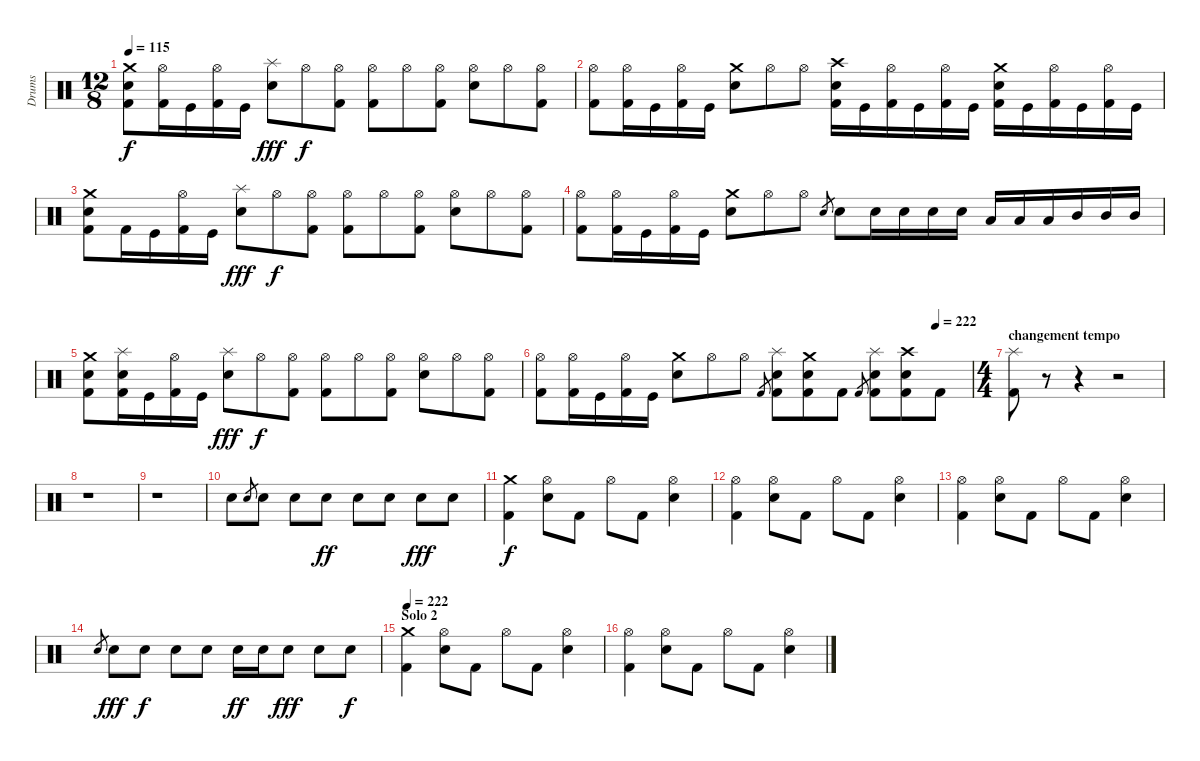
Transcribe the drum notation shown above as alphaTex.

\track ("Drums" "Drums") {instrument percussion}
\staff {score}
\articulation defaults
\ts (12 8)
\tempo 115
\clef neutral
\ks c
("Kick (hit) 2" "Electric Snare (hit)" "Crash medium (hit)").8{dy f} ("Kick (hit) 2" "Hi-Hat (open)").16 "Kick (hit)".16 ("Kick (hit) 2" "Hi-Hat (open)").16 "Kick (hit)".16 ("Electric Snare (hit)" "Splash (hit)").8{dy fff} "Hi-Hat (open)".8{dy f} ("Kick (hit) 2" "Hi-Hat (open)").8 ("Kick (hit) 2" "Hi-Hat (open)").8 "Hi-Hat (open)".8 ("Kick (hit) 2" "Hi-Hat (open)").8 ("Electric Snare (hit)" "Hi-Hat (open)").8 "Hi-Hat (open)".8 ("Kick (hit) 2" "Hi-Hat (open)").8 |
("Kick (hit) 2" "Hi-Hat (open)").8 ("Kick (hit) 2" "Hi-Hat (open)").16 "Kick (hit)".16 ("Kick (hit) 2" "Hi-Hat (open)").16 "Kick (hit)".16 ("Electric Snare (hit)" "Crash medium (hit)").8 "Hi-Hat (open)".8 "Hi-Hat (open)".8 ("Kick (hit) 2" "Electric Snare (hit)" "Crash high (hit)").16 "Kick (hit)".16 ("Kick (hit) 2" "Hi-Hat (open)").16 "Kick (hit)".16 ("Kick (hit) 2" "Hi-Hat (open)").16 "Kick (hit)".16 ("Kick (hit) 2" "Electric Snare (hit)" "Crash medium (hit)").16 "Kick (hit)".16 ("Kick (hit) 2" "Hi-Hat (open)").16 "Kick (hit)".16 ("Kick (hit) 2" "Hi-Hat (open)").16 "Kick (hit)".16 |
("Kick (hit) 2" "Electric Snare (hit)" "Crash medium (hit)").8 "Kick (hit) 2".16 "Kick (hit)".16 ("Kick (hit) 2" "Hi-Hat (open)").16 "Kick (hit)".16 ("Electric Snare (hit)" "Splash (hit)").8{dy fff} "Hi-Hat (open)".8{dy f} ("Kick (hit) 2" "Hi-Hat (open)").8 ("Kick (hit) 2" "Hi-Hat (open)").8 "Hi-Hat (open)".8 ("Kick (hit) 2" "Hi-Hat (open)").8 ("Electric Snare (hit)" "Hi-Hat (open)").8 "Hi-Hat (open)".8 ("Kick (hit) 2" "Hi-Hat (open)").8 |
("Kick (hit) 2" "Hi-Hat (open)").8 ("Kick (hit) 2" "Hi-Hat (open)").16 "Kick (hit)".16 ("Kick (hit) 2" "Hi-Hat (open)").16 "Kick (hit)".16 ("Electric Snare (hit)" "Crash medium (hit)").8 "Hi-Hat (open)".8 "Hi-Hat (open)".8 "Electric Snare (hit)".8{gr} "Electric Snare (hit)".8 "Electric Snare (hit)".16 "Electric Snare (hit)".16 "Electric Snare (hit)".16 "Electric Snare (hit)".16 "Low Tom (hit)".16 "Low Tom (hit)".16 "Low Tom (hit)".16 "Mid Tom (hit)".16 "Mid Tom (hit)".16 "Mid Tom (hit)".16 |
("Kick (hit) 2" "Electric Snare (hit)" "Crash medium (hit)").8 ("Kick (hit) 2" "Electric Snare (hit)" "Splash (hit)").16 "Kick (hit)".16 ("Kick (hit) 2" "Hi-Hat (open)").16 "Kick (hit)".16 ("Electric Snare (hit)" "Splash (hit)").8{dy fff} "Hi-Hat (open)".8{dy f} ("Kick (hit) 2" "Hi-Hat (open)").8 ("Kick (hit) 2" "Hi-Hat (open)").8 "Hi-Hat (open)".8 ("Kick (hit) 2" "Hi-Hat (open)").8 ("Electric Snare (hit)" "Hi-Hat (open)").8 "Hi-Hat (open)".8 ("Kick (hit) 2" "Hi-Hat (open)").8 |
\tempo (222 0.9166666666666666)
("Kick (hit) 2" "Hi-Hat (open)").8 ("Kick (hit) 2" "Hi-Hat (open)").16 "Kick (hit)".16 ("Kick (hit) 2" "Hi-Hat (open)").16 "Kick (hit)".16 ("Electric Snare (hit)" "Crash medium (hit)").8 "Hi-Hat (open)".8 "Hi-Hat (open)".8 "Kick (hit) 2".8{gr} ("Kick (hit) 2" "Electric Snare (hit)" "Splash (hit)").8 ("Kick (hit) 2" "Electric Snare (hit)" "Crash medium (hit)").8 "Kick (hit) 2".8 "Kick (hit) 2".8{gr} ("Kick (hit) 2" "Electric Snare (hit)" "Splash (hit)").8 ("Kick (hit) 2" "Electric Snare (hit)" "Crash high (hit)").8 "Kick (hit) 2".8 |
\ts (4 4)
\section ("" "changement tempo")
("Kick (hit) 2" "Splash (hit)").8 r.8 r.4 r.2 |
r.1 |
r.1 |
"Electric Snare (hit)".8 "Electric Snare (hit)".8{gr} "Electric Snare (hit)".8 "Electric Snare (hit)".8 "Electric Snare (hit)".8{dy ff} "Electric Snare (hit)".8 "Electric Snare (hit)".8 "Electric Snare (hit)".8{dy fff} "Electric Snare (hit)".8 |
("Kick (hit) 2" "Crash medium (hit)").4{dy f} ("Electric Snare (hit)" "Hi-Hat (open)").8 "Kick (hit) 2".8 "Hi-Hat (open)".8 "Kick (hit) 2".8 ("Electric Snare (hit)" "Hi-Hat (open)").4 |
("Kick (hit) 2" "Hi-Hat (open)").4 ("Electric Snare (hit)" "Hi-Hat (open)").8 "Kick (hit) 2".8 "Hi-Hat (open)".8 "Kick (hit) 2".8 ("Electric Snare (hit)" "Hi-Hat (open)").4 |
("Kick (hit) 2" "Hi-Hat (open)").4 ("Electric Snare (hit)" "Hi-Hat (open)").8 "Kick (hit) 2".8 "Hi-Hat (open)".8 "Kick (hit) 2".8 ("Electric Snare (hit)" "Hi-Hat (open)").4 |
"Electric Snare (hit)".8{gr} "Electric Snare (hit)".8{dy fff} "Electric Snare (hit)".8{dy f} "Electric Snare (hit)".8 "Electric Snare (hit)".8 "Electric Snare (hit)".16{dy ff} "Electric Snare (hit)".16 "Electric Snare (hit)".8{dy fff} "Electric Snare (hit)".8 "Electric Snare (hit)".8{dy f} |
\section ("" "Solo 2")
\tempo 222
("Kick (hit) 2" "Crash medium (hit)").4 ("Electric Snare (hit)" "Hi-Hat (open)").8 "Kick (hit) 2".8 "Hi-Hat (open)".8 "Kick (hit) 2".8 ("Electric Snare (hit)" "Hi-Hat (open)").4 |
("Kick (hit) 2" "Hi-Hat (open)").4 ("Electric Snare (hit)" "Hi-Hat (open)").8 "Kick (hit) 2".8 "Hi-Hat (open)".8 "Kick (hit) 2".8 ("Electric Snare (hit)" "Hi-Hat (open)").4
